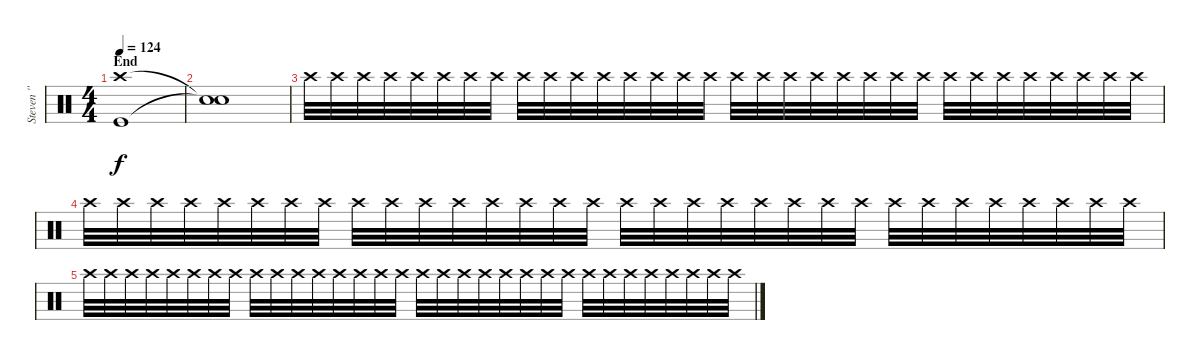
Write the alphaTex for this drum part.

\track ("Steven '' Popcorn '' Adler" "Steven '' ") {instrument percussion}
\staff {score}
\articulation defaults
\ts (4 4)
\section ("" "End")
\tempo 124
\clef neutral
\ks c
("Crash high (hit)" "Kick (hit)").1{dy f} |
("Snare (hit)"{t} "Snare (hit)"{t}).1 |
"Crash high (hit)".32{volume 0} "Crash high (hit)".32 "Crash high (hit)".32 "Crash high (hit)".32{volume 12} "Crash high (hit)".32 "Crash high (hit)".32 "Crash high (hit)".32 "Crash high (hit)".32 "Crash high (hit)".32 "Crash high (hit)".32 "Crash high (hit)".32 "Crash high (hit)".32 "Crash high (hit)".32 "Crash high (hit)".32 "Crash high (hit)".32 "Crash high (hit)".32 "Crash high (hit)".32 "Crash high (hit)".32 "Crash high (hit)".32 "Crash high (hit)".32 "Crash high (hit)".32 "Crash high (hit)".32 "Crash high (hit)".32 "Crash high (hit)".32 "Crash high (hit)".32 "Crash high (hit)".32 "Crash high (hit)".32 "Crash high (hit)".32 "Crash high (hit)".32 "Crash high (hit)".32 "Crash high (hit)".32 "Crash high (hit)".32 |
"Crash high (hit)".32{volume 0} "Crash high (hit)".32 "Crash high (hit)".32 "Crash high (hit)".32 "Crash high (hit)".32 "Crash high (hit)".32 "Crash high (hit)".32 "Crash high (hit)".32 "Crash high (hit)".32 "Crash high (hit)".32 "Crash high (hit)".32 "Crash high (hit)".32 "Crash high (hit)".32 "Crash high (hit)".32 "Crash high (hit)".32 "Crash high (hit)".32 "Crash high (hit)".32 "Crash high (hit)".32 "Crash high (hit)".32 "Crash high (hit)".32 "Crash high (hit)".32 "Crash high (hit)".32 "Crash high (hit)".32 "Crash high (hit)".32 "Crash high (hit)".32 "Crash high (hit)".32 "Crash high (hit)".32 "Crash high (hit)".32 "Crash high (hit)".32 "Crash high (hit)".32 "Crash high (hit)".32 "Crash high (hit)".32 |
"Crash high (hit)".32{volume 0} "Crash high (hit)".32 "Crash high (hit)".32 "Crash high (hit)".32 "Crash high (hit)".32 "Crash high (hit)".32 "Crash high (hit)".32 "Crash high (hit)".32 "Crash high (hit)".32 "Crash high (hit)".32 "Crash high (hit)".32 "Crash high (hit)".32 "Crash high (hit)".32 "Crash high (hit)".32 "Crash high (hit)".32 "Crash high (hit)".32 "Crash high (hit)".32 "Crash high (hit)".32 "Crash high (hit)".32 "Crash high (hit)".32 "Crash high (hit)".32 "Crash high (hit)".32 "Crash high (hit)".32 "Crash high (hit)".32 "Crash high (hit)".32 "Crash high (hit)".32 "Crash high (hit)".32 "Crash high (hit)".32 "Crash high (hit)".32 "Crash high (hit)".32 "Crash high (hit)".32 "Crash high (hit)".32
